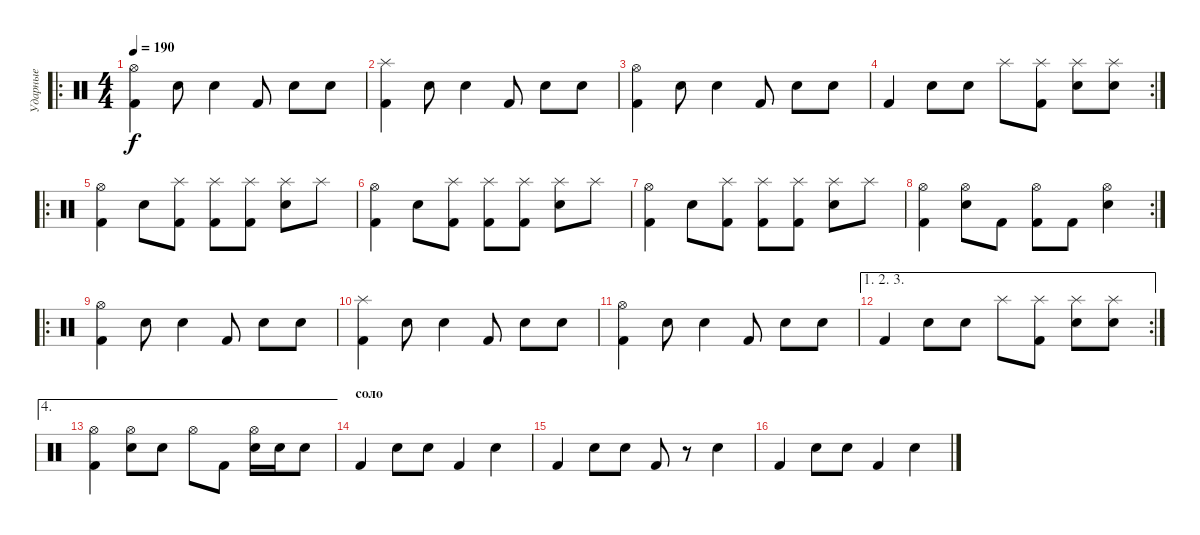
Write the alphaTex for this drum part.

\track ("Ударные" "Ударные") {instrument percussion}
\staff {score}
\articulation defaults
\ro
\ts (4 4)
\tempo 190
\clef neutral
\ks c
("Hi-Hat (open)" "Kick (hit) 2").4{dy f} "Electric Snare (hit)".8 "Electric Snare (hit)".4 "Kick (hit) 2".8 "Electric Snare (hit)".8 "Electric Snare (hit)".8 |
("Splash (hit)" "Kick (hit) 2").4 "Electric Snare (hit)".8 "Electric Snare (hit)".4 "Kick (hit) 2".8 "Electric Snare (hit)".8 "Electric Snare (hit)".8 |
("Hi-Hat (open)" "Kick (hit) 2").4 "Electric Snare (hit)".8 "Electric Snare (hit)".4 "Kick (hit) 2".8 "Electric Snare (hit)".8 "Electric Snare (hit)".8 |
\rc 2 "Kick (hit) 2".4 "Electric Snare (hit)".8 "Electric Snare (hit)".8 "Splash (hit)".8
("Splash (hit)" "Kick (hit) 2").8 ("Splash (hit)" "Electric Snare (hit)").8 ("Splash (hit)" "Electric Snare (hit)").8 |
\ro
("Hi-Hat (open)" "Kick (hit) 2").4 "Electric Snare (hit)".8 ("Splash (hit)" "Kick (hit) 2").8 ("Splash (hit)" "Kick (hit) 2").8 ("Splash (hit)" "Kick (hit) 2").8 ("Splash (hit)" "Electric Snare (hit)").8 "Splash (hit)".8 |
("Hi-Hat (open)" "Kick (hit) 2").4 "Electric Snare (hit)".8 ("Splash (hit)" "Kick (hit) 2").8 ("Splash (hit)" "Kick (hit) 2").8 ("Splash (hit)" "Kick (hit) 2").8 ("Splash (hit)" "Electric Snare (hit)").8 "Splash (hit)".8 |
("Hi-Hat (open)" "Kick (hit) 2").4 "Electric Snare (hit)".8 ("Splash (hit)" "Kick (hit) 2").8 ("Splash (hit)" "Kick (hit) 2").8 ("Splash (hit)" "Kick (hit) 2").8 ("Splash (hit)" "Electric Snare (hit)").8 "Splash (hit)".8 |
\rc 2
("Hi-Hat (open)" "Kick (hit) 2").4 ("Hi-Hat (open)" "Electric Snare (hit)").8 "Kick (hit) 2".8 ("Hi-Hat (open)" "Kick (hit) 2").8 "Kick (hit) 2".8 ("Hi-Hat (open)" "Electric Snare (hit)").4 |
\ro
("Hi-Hat (open)" "Kick (hit) 2").4 "Electric Snare (hit)".8 "Electric Snare (hit)".4 "Kick (hit) 2".8 "Electric Snare (hit)".8 "Electric Snare (hit)".8 |
("Splash (hit)" "Kick (hit) 2").4 "Electric Snare (hit)".8 "Electric Snare (hit)".4 "Kick (hit) 2".8 "Electric Snare (hit)".8 "Electric Snare (hit)".8 |
("Hi-Hat (open)" "Kick (hit) 2").4 "Electric Snare (hit)".8 "Electric Snare (hit)".4 "Kick (hit) 2".8 "Electric Snare (hit)".8 "Electric Snare (hit)".8 |
\ae (1 2 3)
\rc 2 "Kick (hit) 2".4 "Electric Snare (hit)".8 "Electric Snare (hit)".8 "Splash (hit)".8
("Splash (hit)" "Kick (hit) 2").8 ("Splash (hit)" "Electric Snare (hit)").8 ("Splash (hit)" "Electric Snare (hit)").8 |
\ae 4
("Hi-Hat (open)" "Kick (hit) 2").4 ("Hi-Hat (open)" "Electric Snare (hit)").8 "Electric Snare (hit)".8 "Hi-Hat (open)".8 "Kick (hit) 2".8 ("Hi-Hat (open)" "Electric Snare (hit)").16 "Electric Snare (hit)".16 "Electric Snare (hit)".8 |
\section ("" "соло")
"Kick (hit) 2".4 "Electric Snare (hit)".8 "Electric Snare (hit)".8 "Kick (hit) 2".4 "Electric Snare (hit)".4 |
"Kick (hit) 2".4 "Electric Snare (hit)".8 "Electric Snare (hit)".8 "Kick (hit) 2".8 r.8 "Electric Snare (hit)".4 |
"Kick (hit) 2".4 "Electric Snare (hit)".8 "Electric Snare (hit)".8 "Kick (hit) 2".4 "Electric Snare (hit)".4
